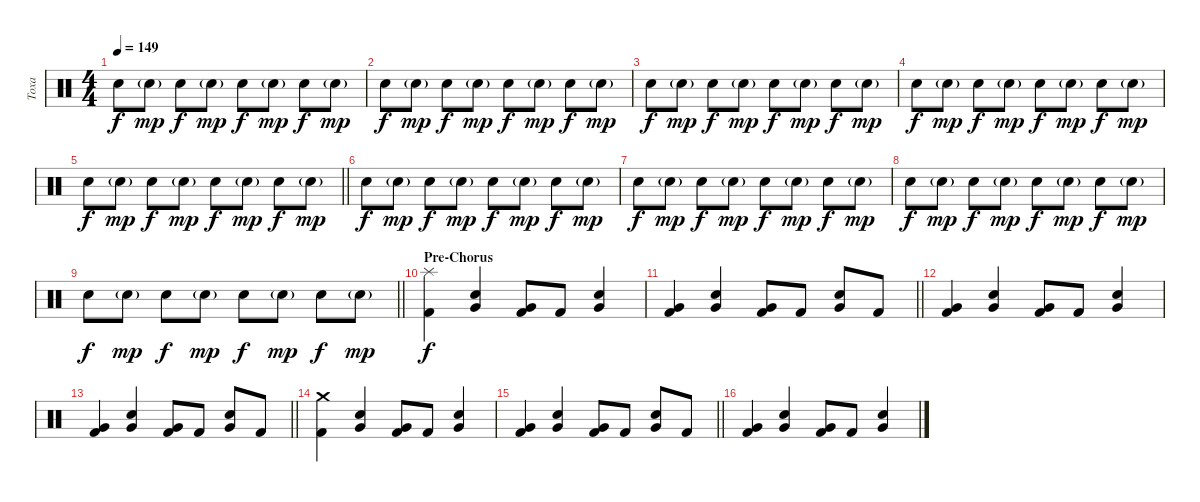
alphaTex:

\track ("Toxa" "Toxa") {instrument percussion}
\staff {score}
\articulation defaults
\ts (4 4)
\tempo 149
\clef neutral
\ks c "Hand Clap (hit)".8{dy f} "Hand Clap (hit)"{g}.8{dy mp} "Hand Clap (hit)".8{dy f} "Hand Clap (hit)"{g}.8{dy mp} "Hand Clap (hit)".8{dy f} "Hand Clap (hit)"{g}.8{dy mp} "Hand Clap (hit)".8{dy f} "Hand Clap (hit)"{g}.8{dy mp}
|
"Hand Clap (hit)".8{dy f} "Hand Clap (hit)"{g}.8{dy mp} "Hand Clap (hit)".8{dy f} "Hand Clap (hit)"{g}.8{dy mp} "Hand Clap (hit)".8{dy f} "Hand Clap (hit)"{g}.8{dy mp} "Hand Clap (hit)".8{dy f} "Hand Clap (hit)"{g}.8{dy mp} |
"Hand Clap (hit)".8{dy f} "Hand Clap (hit)"{g}.8{dy mp} "Hand Clap (hit)".8{dy f} "Hand Clap (hit)"{g}.8{dy mp} "Hand Clap (hit)".8{dy f} "Hand Clap (hit)"{g}.8{dy mp} "Hand Clap (hit)".8{dy f} "Hand Clap (hit)"{g}.8{dy mp} |
"Hand Clap (hit)".8{dy f} "Hand Clap (hit)"{g}.8{dy mp} "Hand Clap (hit)".8{dy f} "Hand Clap (hit)"{g}.8{dy mp} "Hand Clap (hit)".8{dy f} "Hand Clap (hit)"{g}.8{dy mp} "Hand Clap (hit)".8{dy f} "Hand Clap (hit)"{g}.8{dy mp} |
\barLineRight lightlight "Hand Clap (hit)".8{dy f} "Hand Clap (hit)"{g}.8{dy mp} "Hand Clap (hit)".8{dy f} "Hand Clap (hit)"{g}.8{dy mp} "Hand Clap (hit)".8{dy f} "Hand Clap (hit)"{g}.8{dy mp} "Hand Clap (hit)".8{dy f} "Hand Clap (hit)"{g}.8{dy mp}
|
"Hand Clap (hit)".8{dy f} "Hand Clap (hit)"{g}.8{dy mp} "Hand Clap (hit)".8{dy f} "Hand Clap (hit)"{g}.8{dy mp} "Hand Clap (hit)".8{dy f} "Hand Clap (hit)"{g}.8{dy mp} "Hand Clap (hit)".8{dy f} "Hand Clap (hit)"{g}.8{dy mp} |
"Hand Clap (hit)".8{dy f} "Hand Clap (hit)"{g}.8{dy mp} "Hand Clap (hit)".8{dy f} "Hand Clap (hit)"{g}.8{dy mp} "Hand Clap (hit)".8{dy f} "Hand Clap (hit)"{g}.8{dy mp} "Hand Clap (hit)".8{dy f} "Hand Clap (hit)"{g}.8{dy mp} |
"Hand Clap (hit)".8{dy f} "Hand Clap (hit)"{g}.8{dy mp} "Hand Clap (hit)".8{dy f} "Hand Clap (hit)"{g}.8{dy mp} "Hand Clap (hit)".8{dy f} "Hand Clap (hit)"{g}.8{dy mp} "Hand Clap (hit)".8{dy f} "Hand Clap (hit)"{g}.8{dy mp} |
\barLineRight lightlight "Hand Clap (hit)".8{dy f} "Hand Clap (hit)"{g}.8{dy mp} "Hand Clap (hit)".8{dy f} "Hand Clap (hit)"{g}.8{dy mp} "Hand Clap (hit)".8{dy f} "Hand Clap (hit)"{g}.8{dy mp} "Hand Clap (hit)".8{dy f} "Hand Clap (hit)"{g}.8{dy mp}
|
\section ("" "Pre-Chorus")
("Kick (hit) 2" "Splash (hit)").4{dy f} ("Snare (hit) 2" "Very Low Tom (hit)").4 ("Kick (hit) 2" "Very Low Tom (hit)").8 "Kick (hit) 2".8 ("Snare (hit) 2" "Very Low Tom (hit)").4 |
\barLineRight lightlight
("Kick (hit) 2" "Very Low Tom (hit)").4 ("Snare (hit) 2" "Very Low Tom (hit)").4 ("Kick (hit) 2" "Very Low Tom (hit)").8 "Kick (hit) 2".8 ("Snare (hit) 2" "Very Low Tom (hit)").8 "Kick (hit) 2".8 |
("Kick (hit) 2" "Very Low Tom (hit)").4 ("Snare (hit) 2" "Very Low Tom (hit)").4 ("Kick (hit) 2" "Very Low Tom (hit)").8 "Kick (hit) 2".8 ("Snare (hit) 2" "Very Low Tom (hit)").4 |
\barLineRight lightlight
("Kick (hit) 2" "Very Low Tom (hit)").4 ("Snare (hit) 2" "Very Low Tom (hit)").4 ("Kick (hit) 2" "Very Low Tom (hit)").8 "Kick (hit) 2".8 ("Snare (hit) 2" "Very Low Tom (hit)").8 "Kick (hit) 2".8 |
("Kick (hit) 2" "Crash medium (hit)").4 ("Snare (hit) 2" "Very Low Tom (hit)").4 ("Kick (hit) 2" "Very Low Tom (hit)").8 "Kick (hit) 2".8 ("Snare (hit) 2" "Very Low Tom (hit)").4 |
\barLineRight lightlight
("Kick (hit) 2" "Very Low Tom (hit)").4 ("Snare (hit) 2" "Very Low Tom (hit)").4 ("Kick (hit) 2" "Very Low Tom (hit)").8 "Kick (hit) 2".8 ("Snare (hit) 2" "Very Low Tom (hit)").8 "Kick (hit) 2".8 |
("Kick (hit) 2" "Very Low Tom (hit)").4 ("Snare (hit) 2" "Very Low Tom (hit)").4 ("Kick (hit) 2" "Very Low Tom (hit)").8 "Kick (hit) 2".8 ("Snare (hit) 2" "Very Low Tom (hit)").4
